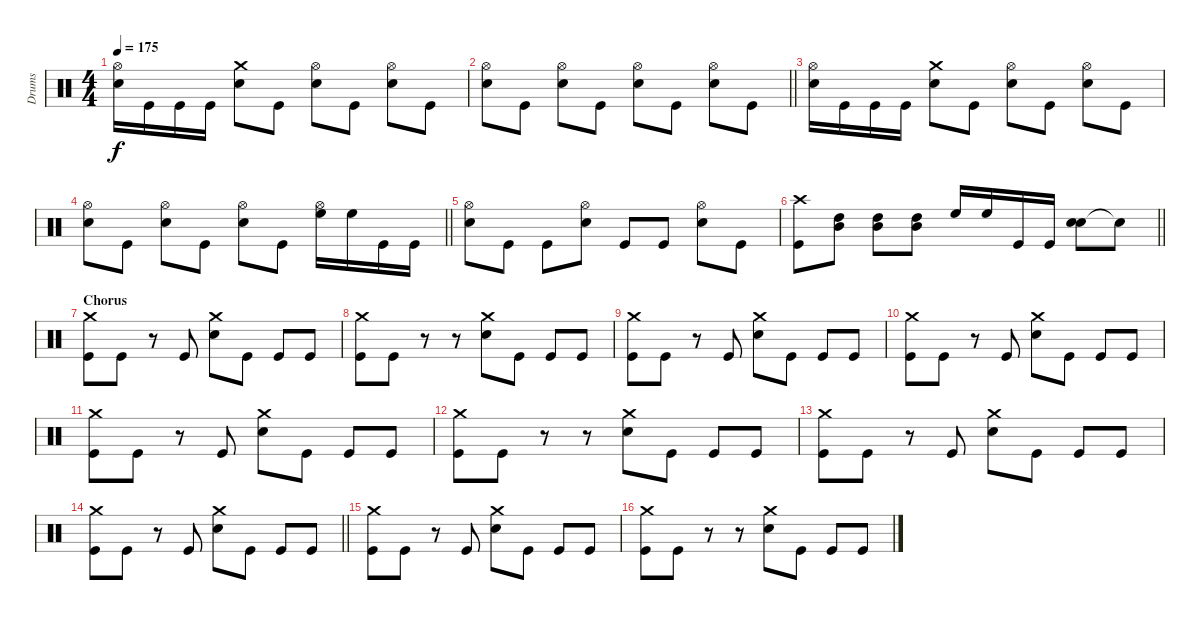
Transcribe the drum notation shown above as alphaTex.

\track ("Drums" "Drums") {instrument percussion}
\staff {score}
\articulation defaults
\ts (4 4)
\tempo 175
\clef neutral
\ks c
("Hi-Hat (open)" "Electric Snare (hit)").16{dy f} "Kick (hit)".16 "Kick (hit)".16 "Kick (hit)".16 ("Crash medium (hit)" "Electric Snare (hit)").8 "Kick (hit)".8 ("Hi-Hat (open)" "Electric Snare (hit)").8 "Kick (hit)".8 ("Hi-Hat (open)" "Electric Snare (hit)").8 "Kick (hit)".8 |
\barLineRight lightlight
("Hi-Hat (open)" "Electric Snare (hit)").8 "Kick (hit)".8 ("Hi-Hat (open)" "Electric Snare (hit)").8 "Kick (hit)".8 ("Hi-Hat (open)" "Electric Snare (hit)").8 "Kick (hit)".8 ("Hi-Hat (open)" "Electric Snare (hit)").8 "Kick (hit)".8 |
("Hi-Hat (open)" "Electric Snare (hit)").16 "Kick (hit)".16 "Kick (hit)".16 "Kick (hit)".16 ("Crash medium (hit)" "Electric Snare (hit)").8 "Kick (hit)".8 ("Hi-Hat (open)" "Electric Snare (hit)").8 "Kick (hit)".8 ("Hi-Hat (open)" "Electric Snare (hit)").8 "Kick (hit)".8 |
\barLineRight lightlight
("Hi-Hat (open)" "Electric Snare (hit)").8 "Kick (hit)".8 ("Hi-Hat (open)" "Electric Snare (hit)").8 "Kick (hit)".8 ("Hi-Hat (open)" "Electric Snare (hit)").8 "Kick (hit)".8 ("Hi-Hat (open)" "High Floor Tom (hit)").16 "High Floor Tom (hit)".16 "Kick (hit)".16 "Kick (hit)".16 |
("Hi-Hat (open)" "Electric Snare (hit)").8 "Kick (hit)".8 "Kick (hit)".8 ("Hi-Hat (open)" "Electric Snare (hit)").8 "Kick (hit)".8 "Kick (hit)".8 ("Hi-Hat (open)" "Electric Snare (hit)").8 "Kick (hit)".8 |
\barLineRight lightlight
("Crash high (hit)" "Kick (hit)").8 ("High Tom (hit)" "Mid Tom (hit)").8 ("High Tom (hit)" "Mid Tom (hit)").8 ("High Tom (hit)" "Mid Tom (hit)").8 "High Floor Tom (hit)".16 "High Floor Tom (hit)".16 "Kick (hit)".16 "Kick (hit)".16 ("Electric Snare (hit)" "Electric Snare (hit)").8 "Snare (hit)"{t}.8 |
\section ("" "Chorus")
("Crash medium (hit)" "Kick (hit)").8 "Kick (hit)".8 r.8 "Kick (hit)".8 ("Crash medium (hit)" "Electric Snare (hit)").8 "Kick (hit)".8 "Kick (hit)".8 "Kick (hit)".8 |
("Crash medium (hit)" "Kick (hit)").8 "Kick (hit)".8 r.8 r.8 ("Crash medium (hit)" "Electric Snare (hit)").8 "Kick (hit)".8 "Kick (hit)".8 "Kick (hit)".8 |
("Crash medium (hit)" "Kick (hit)").8 "Kick (hit)".8 r.8 "Kick (hit)".8 ("Crash medium (hit)" "Electric Snare (hit)").8 "Kick (hit)".8 "Kick (hit)".8 "Kick (hit)".8 |
("Crash medium (hit)" "Kick (hit)").8 "Kick (hit)".8 r.8 "Kick (hit)".8 ("Crash medium (hit)" "Electric Snare (hit)").8 "Kick (hit)".8 "Kick (hit)".8 "Kick (hit)".8 |
("Crash medium (hit)" "Kick (hit)").8 "Kick (hit)".8 r.8 "Kick (hit)".8 ("Crash medium (hit)" "Electric Snare (hit)").8 "Kick (hit)".8 "Kick (hit)".8 "Kick (hit)".8 |
("Crash medium (hit)" "Kick (hit)").8 "Kick (hit)".8 r.8 r.8 ("Crash medium (hit)" "Electric Snare (hit)").8 "Kick (hit)".8 "Kick (hit)".8 "Kick (hit)".8 |
("Crash medium (hit)" "Kick (hit)").8 "Kick (hit)".8 r.8 "Kick (hit)".8 ("Crash medium (hit)" "Electric Snare (hit)").8 "Kick (hit)".8 "Kick (hit)".8 "Kick (hit)".8 |
\barLineRight lightlight
("Crash medium (hit)" "Kick (hit)").8 "Kick (hit)".8 r.8 "Kick (hit)".8 ("Crash medium (hit)" "Electric Snare (hit)").8 "Kick (hit)".8 "Kick (hit)".8 "Kick (hit)".8 |
("Crash medium (hit)" "Kick (hit)").8 "Kick (hit)".8 r.8 "Kick (hit)".8 ("Crash medium (hit)" "Electric Snare (hit)").8 "Kick (hit)".8 "Kick (hit)".8 "Kick (hit)".8 |
("Crash medium (hit)" "Kick (hit)").8 "Kick (hit)".8 r.8 r.8 ("Crash medium (hit)" "Electric Snare (hit)").8 "Kick (hit)".8 "Kick (hit)".8 "Kick (hit)".8
